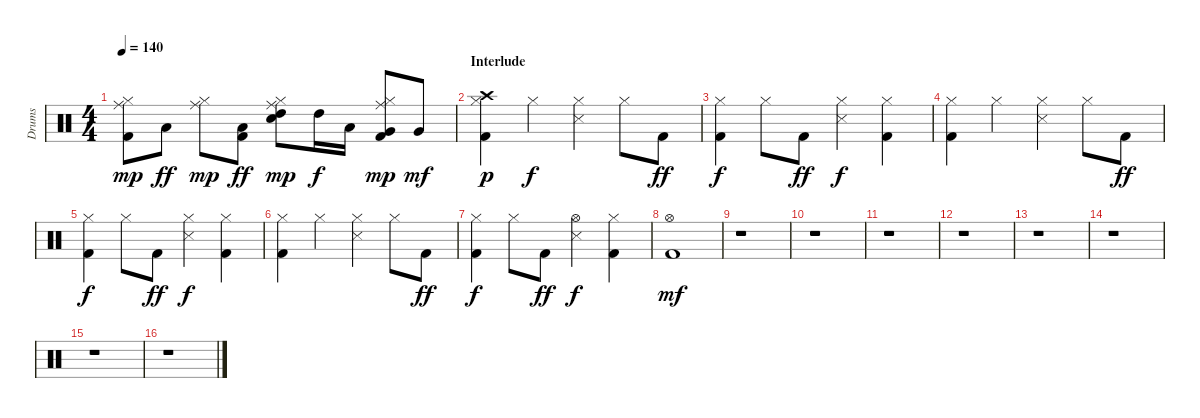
\track ("Drums" "Drums") {instrument percussion}
\staff {score}
\articulation defaults
\ts (4 4)
\tempo 140
\clef neutral
\ks c
("Kick (hit) 2" "Hi-Hat (closed)" "Ride (middle)").8{dy mp} "Low Tom (hit)".8{dy ff} ("Hi-Hat (closed)" "Ride (middle)").8{dy mp} ("Kick (hit) 2" "Low Tom (hit)").8{dy ff} ("Snare (hit) 2" "Hi-Hat (closed)" "High Tom (hit)" "Ride (middle)").8{dy mp} "High Tom (hit)".16{dy f} "Low Tom (hit)".16 ("Kick (hit) 2" "Hi-Hat (closed)" "Very Low Tom (hit)" "Ride (middle)").8{dy mp} "Very Low Tom (hit)".8{dy mf} |
\section ("" "Interlude")
("Kick (hit) 2" "Hi-Hat (closed)" "Crash high (hit)").4{dy p} "Hi-Hat (closed)".4{dy f} ("Snare (side stick) 3" "Hi-Hat (closed)").4 "Hi-Hat (closed)".8 "Kick (hit) 2".8{dy ff} |
("Kick (hit) 2" "Hi-Hat (closed)").4{dy f} "Hi-Hat (closed)".8 "Kick (hit) 2".8{dy ff} ("Snare (side stick) 3" "Hi-Hat (closed)").4{dy f} ("Kick (hit) 2" "Hi-Hat (closed)").4 |
("Kick (hit) 2" "Hi-Hat (closed)").4 "Hi-Hat (closed)".4 ("Snare (side stick) 3" "Hi-Hat (closed)").4 "Hi-Hat (closed)".8 "Kick (hit) 2".8{dy ff} |
("Kick (hit) 2" "Hi-Hat (closed)").4{dy f} "Hi-Hat (closed)".8 "Kick (hit) 2".8{dy ff} ("Snare (side stick) 3" "Hi-Hat (closed)").4{dy f} ("Kick (hit) 2" "Hi-Hat (closed)").4 |
("Kick (hit) 2" "Hi-Hat (closed)").4 "Hi-Hat (closed)".4 ("Snare (side stick) 3" "Hi-Hat (closed)").4 "Hi-Hat (closed)".8 "Kick (hit) 2".8{dy ff} |
("Kick (hit) 2" "Hi-Hat (closed)").4{dy f} "Hi-Hat (closed)".8 "Kick (hit) 2".8{dy ff} ("Snare (side stick) 3" "Hi-Hat (open)").4{dy f} ("Kick (hit) 2" "Hi-Hat (closed)").4 |
("Kick (hit) 2" "Hi-Hat (open)").1{dy mf} |
r.1 |
r.1 |
r.1 |
r.1 |
r.1 |
r.1 |
r.1 |
r.1
